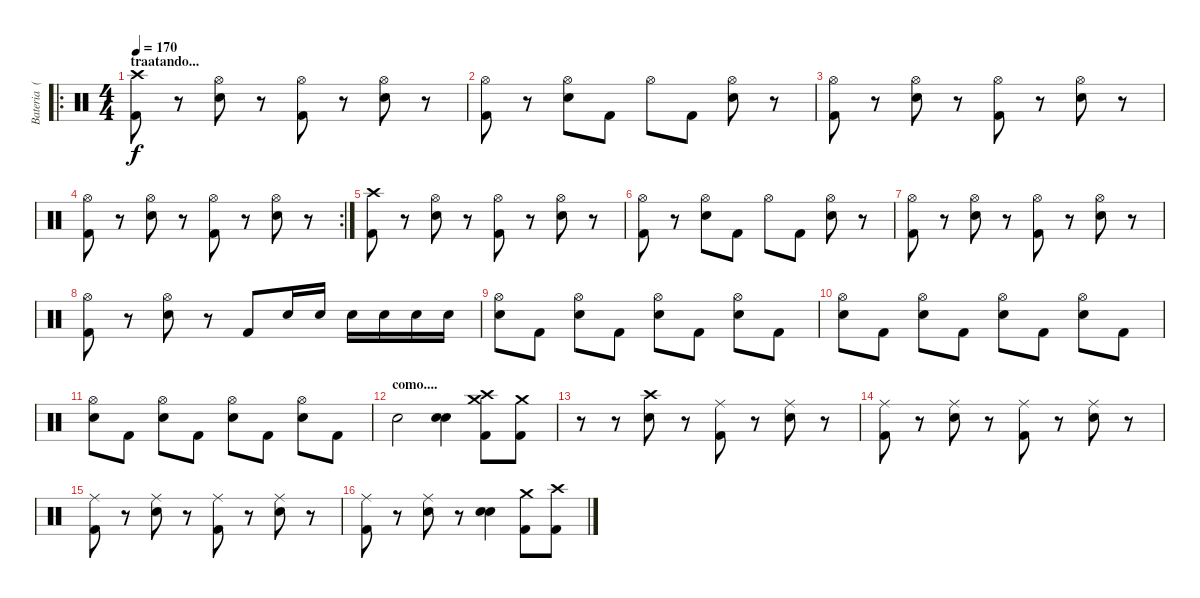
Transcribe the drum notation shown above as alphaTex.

\track ("Bateria  (Araujo)" "Bateria  (") {instrument percussion}
\staff {score}
\articulation defaults
\ro
\ts (4 4)
\section ("" "traatando...")
\tempo 170
\clef neutral
\ks c
("Crash high (hit)" "Kick (hit) 2").8{dy f} r.8 ("Hi-Hat (open)" "Snare (hit) 2").8 r.8 ("Hi-Hat (open)" "Kick (hit) 2").8 r.8 ("Hi-Hat (open)" "Snare (hit) 2").8 r.8 |
("Hi-Hat (open)" "Kick (hit) 2").8 r.8 ("Hi-Hat (open)" "Snare (hit) 2").8 "Kick (hit) 2".8 "Hi-Hat (open)".8 "Kick (hit) 2".8 ("Hi-Hat (open)" "Snare (hit) 2").8 r.8 |
("Hi-Hat (open)" "Kick (hit) 2").8 r.8 ("Hi-Hat (open)" "Snare (hit) 2").8 r.8 ("Hi-Hat (open)" "Kick (hit) 2").8 r.8 ("Hi-Hat (open)" "Snare (hit) 2").8 r.8 |
\rc 2
("Hi-Hat (open)" "Kick (hit) 2").8 r.8 ("Hi-Hat (open)" "Snare (hit) 2").8 r.8 ("Hi-Hat (open)" "Kick (hit) 2").8 r.8 ("Hi-Hat (open)" "Snare (hit) 2").8 r.8 |
("Crash high (hit)" "Kick (hit) 2").8 r.8 ("Hi-Hat (open)" "Snare (hit) 2").8 r.8 ("Hi-Hat (open)" "Kick (hit) 2").8 r.8 ("Hi-Hat (open)" "Snare (hit) 2").8 r.8 |
("Hi-Hat (open)" "Kick (hit) 2").8 r.8 ("Hi-Hat (open)" "Snare (hit) 2").8 "Kick (hit) 2".8 "Hi-Hat (open)".8 "Kick (hit) 2".8 ("Hi-Hat (open)" "Snare (hit) 2").8 r.8 |
("Hi-Hat (open)" "Kick (hit) 2").8 r.8 ("Hi-Hat (open)" "Snare (hit) 2").8 r.8 ("Hi-Hat (open)" "Kick (hit) 2").8 r.8 ("Hi-Hat (open)" "Snare (hit) 2").8 r.8 |
("Hi-Hat (open)" "Kick (hit) 2").8 r.8 ("Hi-Hat (open)" "Snare (hit) 2").8 r.8 "Kick (hit) 2".8 "Snare (hit) 2".16 "Snare (hit) 2".16 "Snare (hit) 2".16 "Snare (hit) 2".16 "Snare (hit) 2".16 "Snare (hit) 2".16 |
("Hi-Hat (open)" "Snare (hit) 2").8 "Kick (hit) 2".8 ("Hi-Hat (open)" "Snare (hit) 2").8 "Kick (hit) 2".8 ("Hi-Hat (open)" "Snare (hit) 2").8 "Kick (hit) 2".8 ("Hi-Hat (open)" "Snare (hit) 2").8 "Kick (hit) 2".8 |
("Hi-Hat (open)" "Snare (hit) 2").8 "Kick (hit) 2".8 ("Hi-Hat (open)" "Snare (hit) 2").8 "Kick (hit) 2".8 ("Hi-Hat (open)" "Snare (hit) 2").8 "Kick (hit) 2".8 ("Hi-Hat (open)" "Snare (hit) 2").8 "Kick (hit) 2".8 |
("Hi-Hat (open)" "Snare (hit) 2").8 "Kick (hit) 2".8 ("Hi-Hat (open)" "Snare (hit) 2").8 "Kick (hit) 2".8 ("Hi-Hat (open)" "Snare (hit) 2").8 "Kick (hit) 2".8 ("Hi-Hat (open)" "Snare (hit) 2").8 "Kick (hit) 2".8 |
\section ("" "como....")
"Snare (hit) 2".2 ("Snare (hit) 2" "Snare (hit) 2").4 ("Crash high (hit)" "Crash medium (hit)" "Kick (hit) 2").8 ("Crash medium (hit)" "Kick (hit) 2").8 |
r.8 r.8 ("Crash high (hit)" "Snare (hit) 2").8 r.8 ("Ride (middle)" "Kick (hit) 2").8 r.8 ("Ride (middle)" "Snare (hit) 2").8 r.8 |
("Ride (middle)" "Kick (hit) 2").8 r.8 ("Ride (middle)" "Snare (hit) 2").8 r.8 ("Ride (middle)" "Kick (hit) 2").8 r.8 ("Ride (middle)" "Snare (hit) 2").8 r.8 |
("Ride (middle)" "Kick (hit) 2").8 r.8 ("Ride (middle)" "Snare (hit) 2").8 r.8 ("Ride (middle)" "Kick (hit) 2").8 r.8 ("Ride (middle)" "Snare (hit) 2").8 r.8 |
("Ride (middle)" "Kick (hit) 2").8 r.8 ("Ride (middle)" "Snare (hit) 2").8 r.8 ("Snare (hit) 2" "Snare (hit) 2").4 ("Crash medium (hit)" "Kick (hit) 2").8 ("Crash high (hit)" "Kick (hit) 2").8
